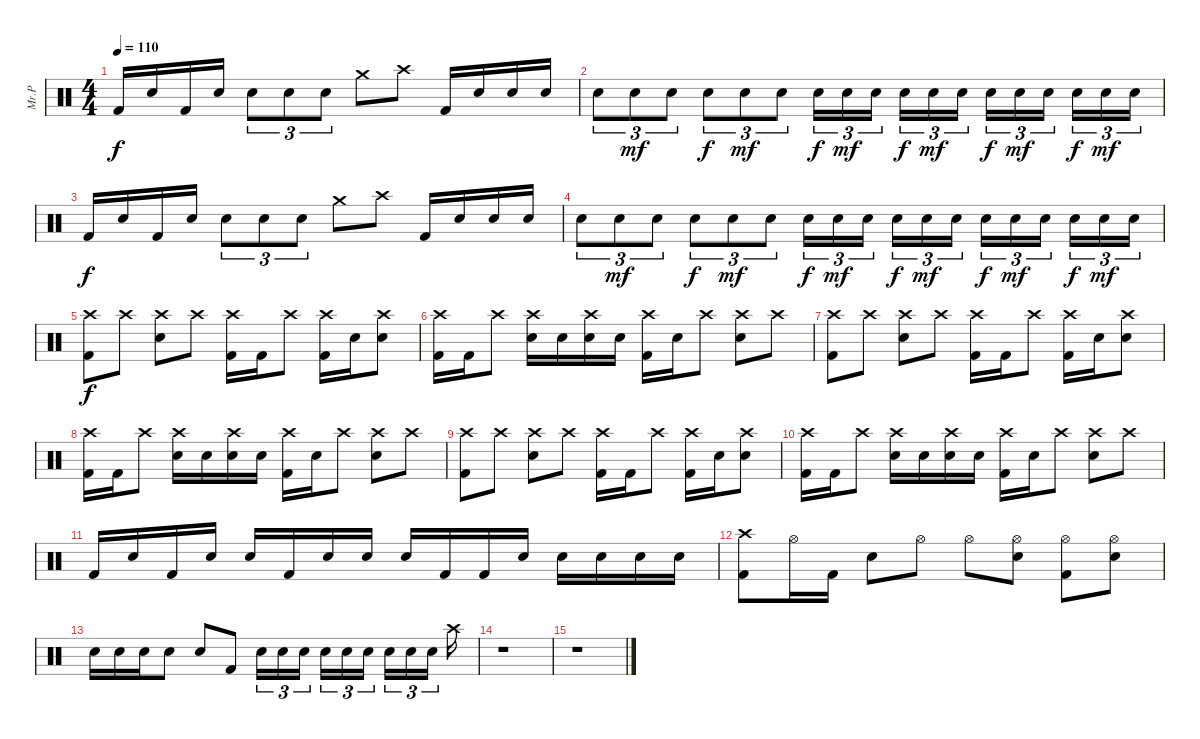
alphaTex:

\track ("Mr.P" "Mr.P") {instrument percussion}
\staff {score}
\articulation defaults
\ts (4 4)
\tempo 110
\clef neutral
\ks c "Kick (hit) 2".16{dy f} "Electric Snare (hit)".16 "Kick (hit) 2".16 "Electric Snare (hit)".16 "Electric Snare (hit)".8{tu (3 2)} "Electric Snare (hit)".8{tu (3 2)} "Electric Snare (hit)".8{tu (3 2)} "Crash medium (hit)".8 "Crash high (hit)".8 "Kick (hit) 2".16 "Electric Snare (hit)".16 "Electric Snare (hit)".16 "Electric Snare (hit)".16
|
"Electric Snare (hit)".8{tu (3 2)} "Electric Snare (hit)".8{tu (3 2) dy mf} "Electric Snare (hit)".8{tu (3 2)} "Electric Snare (hit)".8{tu (3 2) dy f} "Electric Snare (hit)".8{tu (3 2) dy mf} "Electric Snare (hit)".8{tu (3 2)} "Electric Snare (hit)".16{tu (3 2) dy f} "Electric Snare (hit)".16{tu (3 2) dy mf} "Electric Snare (hit)".16{tu (3 2)} "Electric Snare (hit)".16{tu (3 2) dy f} "Electric Snare (hit)".16{tu (3 2) dy mf} "Electric Snare (hit)".16{tu (3 2)} "Electric Snare (hit)".16{tu (3 2) dy f} "Electric Snare (hit)".16{tu (3 2) dy mf} "Electric Snare (hit)".16{tu (3 2)} "Electric Snare (hit)".16{tu (3 2) dy f} "Electric Snare (hit)".16{tu (3 2) dy mf} "Electric Snare (hit)".16{tu (3 2)} |
"Kick (hit) 2".16{dy f} "Electric Snare (hit)".16 "Kick (hit) 2".16 "Electric Snare (hit)".16 "Electric Snare (hit)".8{tu (3 2)} "Electric Snare (hit)".8{tu (3 2)} "Electric Snare (hit)".8{tu (3 2)} "Crash medium (hit)".8 "Crash high (hit)".8 "Kick (hit) 2".16 "Electric Snare (hit)".16 "Electric Snare (hit)".16 "Electric Snare (hit)".16 |
"Electric Snare (hit)".8{tu (3 2)} "Electric Snare (hit)".8{tu (3 2) dy mf} "Electric Snare (hit)".8{tu (3 2)} "Electric Snare (hit)".8{tu (3 2) dy f} "Electric Snare (hit)".8{tu (3 2) dy mf} "Electric Snare (hit)".8{tu (3 2)} "Electric Snare (hit)".16{tu (3 2) dy f} "Electric Snare (hit)".16{tu (3 2) dy mf} "Electric Snare (hit)".16{tu (3 2)} "Electric Snare (hit)".16{tu (3 2) dy f} "Electric Snare (hit)".16{tu (3 2) dy mf} "Electric Snare (hit)".16{tu (3 2)} "Electric Snare (hit)".16{tu (3 2) dy f} "Electric Snare (hit)".16{tu (3 2) dy mf} "Electric Snare (hit)".16{tu (3 2)} "Electric Snare (hit)".16{tu (3 2) dy f} "Electric Snare (hit)".16{tu (3 2) dy mf} "Electric Snare (hit)".16{tu (3 2)} |
("Crash high (hit)" "Kick (hit) 2").8{dy f} "Crash high (hit)".8 ("Crash high (hit)" "Electric Snare (hit)").8 "Crash high (hit)".8 ("Crash high (hit)" "Kick (hit) 2").16 "Kick (hit) 2".16 "Crash high (hit)".8 ("Crash high (hit)" "Kick (hit) 2").16 "Electric Snare (hit)".16 ("Crash high (hit)" "Electric Snare (hit)").8 |
("Crash high (hit)" "Kick (hit) 2").16 "Kick (hit) 2".16 "Crash high (hit)".8 ("Crash high (hit)" "Electric Snare (hit)").16 "Electric Snare (hit)".16 ("Crash high (hit)" "Electric Snare (hit)").16 "Electric Snare (hit)".16 ("Crash high (hit)" "Kick (hit) 2").16 "Electric Snare (hit)".16 "Crash high (hit)".8 ("Crash high (hit)" "Electric Snare (hit)").8 "Crash high (hit)".8 |
("Crash high (hit)" "Kick (hit) 2").8 "Crash high (hit)".8 ("Crash high (hit)" "Electric Snare (hit)").8 "Crash high (hit)".8 ("Crash high (hit)" "Kick (hit) 2").16 "Kick (hit) 2".16 "Crash high (hit)".8 ("Crash high (hit)" "Kick (hit) 2").16 "Electric Snare (hit)".16 ("Crash high (hit)" "Electric Snare (hit)").8 |
("Crash high (hit)" "Kick (hit) 2").16 "Kick (hit) 2".16 "Crash high (hit)".8 ("Crash high (hit)" "Electric Snare (hit)").16 "Electric Snare (hit)".16 ("Crash high (hit)" "Electric Snare (hit)").16 "Electric Snare (hit)".16 ("Crash high (hit)" "Kick (hit) 2").16 "Electric Snare (hit)".16 "Crash high (hit)".8 ("Crash high (hit)" "Electric Snare (hit)").8 "Crash high (hit)".8 |
("Crash high (hit)" "Kick (hit) 2").8 "Crash high (hit)".8 ("Crash high (hit)" "Electric Snare (hit)").8 "Crash high (hit)".8 ("Crash high (hit)" "Kick (hit) 2").16 "Kick (hit) 2".16 "Crash high (hit)".8 ("Crash high (hit)" "Kick (hit) 2").16 "Electric Snare (hit)".16 ("Crash high (hit)" "Electric Snare (hit)").8 |
("Crash high (hit)" "Kick (hit) 2").16 "Kick (hit) 2".16 "Crash high (hit)".8 ("Crash high (hit)" "Electric Snare (hit)").16 "Electric Snare (hit)".16 ("Crash high (hit)" "Electric Snare (hit)").16 "Electric Snare (hit)".16 ("Crash high (hit)" "Kick (hit) 2").16 "Electric Snare (hit)".16 "Crash high (hit)".8 ("Crash high (hit)" "Electric Snare (hit)").8 "Crash high (hit)".8 |
"Kick (hit) 2".16 "Electric Snare (hit)".16 "Kick (hit) 2".16 "Electric Snare (hit)".16 "Electric Snare (hit)".16 "Kick (hit) 2".16 "Electric Snare (hit)".16 "Electric Snare (hit)".16 "Electric Snare (hit)".16 "Kick (hit) 2".16 "Kick (hit) 2".16 "Electric Snare (hit)".16 "Electric Snare (hit)".16 "Electric Snare (hit)".16 "Electric Snare (hit)".16 "Electric Snare (hit)".16 |
("Crash high (hit)" "Kick (hit) 2").8{volume 0} "Hi-Hat (open)".16 "Kick (hit) 2".16 "Electric Snare (hit)".8 "Hi-Hat (open)".8 "Hi-Hat (open)".8 ("Hi-Hat (open)" "Electric Snare (hit)").8 ("Hi-Hat (open)" "Kick (hit) 2").8 ("Hi-Hat (open)" "Electric Snare (hit)").8 |
"Electric Snare (hit)".16 "Electric Snare (hit)".16 "Electric Snare (hit)".16 "Electric Snare (hit)".8 "Electric Snare (hit)".8 "Kick (hit) 2".8 "Electric Snare (hit)".16{tu (3 2)} "Electric Snare (hit)".16{tu (3 2)} "Electric Snare (hit)".16{tu (3 2)} "Electric Snare (hit)".16{tu (3 2)} "Electric Snare (hit)".16{tu (3 2)} "Electric Snare (hit)".16{tu (3 2)} "Electric Snare (hit)".16{tu (3 2)} "Electric Snare (hit)".16{tu (3 2)} "Electric Snare (hit)".16{tu (3 2)} "Crash high (hit)".16 |
r.1 |
r.1
